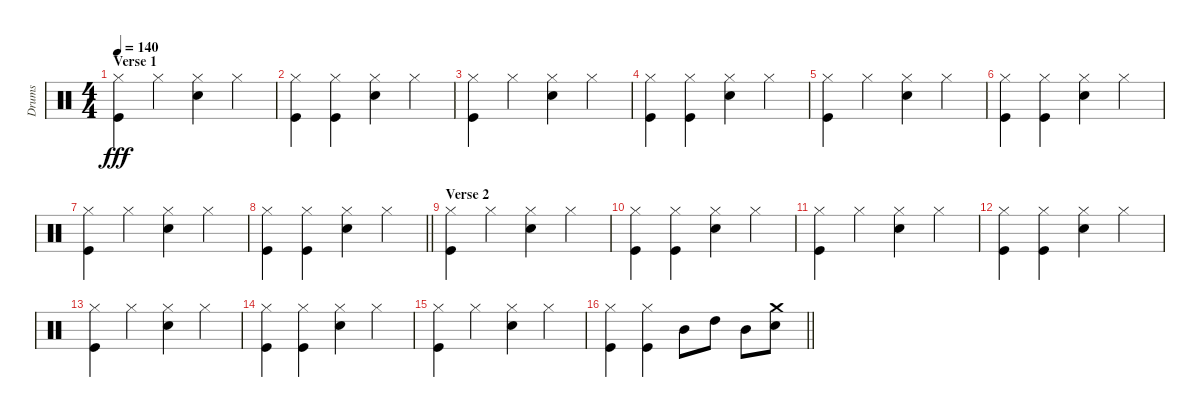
\track ("Drums" "Drums") {instrument percussion}
\staff {score}
\articulation defaults
\ts (4 4)
\section ("" "Verse 1")
\tempo 140
\clef neutral
\ks c
("Hi-Hat (closed)" "Kick (hit)").4{dy fff} "Hi-Hat (closed)".4 ("Hi-Hat (closed)" "Snare (hit) 2").4 "Hi-Hat (closed)".4 |
("Hi-Hat (closed)" "Kick (hit)").4 ("Hi-Hat (closed)" "Kick (hit)").4 ("Hi-Hat (closed)" "Snare (hit) 2").4 "Hi-Hat (closed)".4 |
("Hi-Hat (closed)" "Kick (hit)").4 "Hi-Hat (closed)".4 ("Hi-Hat (closed)" "Snare (hit) 2").4 "Hi-Hat (closed)".4 |
("Hi-Hat (closed)" "Kick (hit)").4 ("Hi-Hat (closed)" "Kick (hit)").4 ("Hi-Hat (closed)" "Snare (hit) 2").4 "Hi-Hat (closed)".4 |
("Hi-Hat (closed)" "Kick (hit)").4 "Hi-Hat (closed)".4 ("Hi-Hat (closed)" "Snare (hit) 2").4 "Hi-Hat (closed)".4 |
("Hi-Hat (closed)" "Kick (hit)").4 ("Hi-Hat (closed)" "Kick (hit)").4 ("Hi-Hat (closed)" "Snare (hit) 2").4 "Hi-Hat (closed)".4 |
("Hi-Hat (closed)" "Kick (hit)").4 "Hi-Hat (closed)".4 ("Hi-Hat (closed)" "Snare (hit) 2").4 "Hi-Hat (closed)".4 |
\barLineRight lightlight
("Hi-Hat (closed)" "Kick (hit)").4 ("Hi-Hat (closed)" "Kick (hit)").4 ("Hi-Hat (closed)" "Snare (hit) 2").4 "Hi-Hat (closed)".4 |
\section ("" "Verse 2")
("Hi-Hat (closed)" "Kick (hit)").4 "Hi-Hat (closed)".4 ("Hi-Hat (closed)" "Snare (hit) 2").4 "Hi-Hat (closed)".4 |
("Hi-Hat (closed)" "Kick (hit)").4 ("Hi-Hat (closed)" "Kick (hit)").4 ("Hi-Hat (closed)" "Snare (hit) 2").4 "Hi-Hat (closed)".4 |
("Hi-Hat (closed)" "Kick (hit)").4 "Hi-Hat (closed)".4 ("Hi-Hat (closed)" "Snare (hit) 2").4 "Hi-Hat (closed)".4 |
("Hi-Hat (closed)" "Kick (hit)").4 ("Hi-Hat (closed)" "Kick (hit)").4 ("Hi-Hat (closed)" "Snare (hit) 2").4 "Hi-Hat (closed)".4 |
("Hi-Hat (closed)" "Kick (hit)").4 "Hi-Hat (closed)".4 ("Hi-Hat (closed)" "Snare (hit) 2").4 "Hi-Hat (closed)".4 |
("Hi-Hat (closed)" "Kick (hit)").4 ("Hi-Hat (closed)" "Kick (hit)").4 ("Hi-Hat (closed)" "Snare (hit) 2").4 "Hi-Hat (closed)".4 |
("Hi-Hat (closed)" "Kick (hit)").4 "Hi-Hat (closed)".4 ("Hi-Hat (closed)" "Snare (hit) 2").4 "Hi-Hat (closed)".4 |
\barLineRight lightlight
("Hi-Hat (closed)" "Kick (hit)").4 ("Hi-Hat (closed)" "Kick (hit)").4 "Mid Tom (hit)".8 "High Tom (hit)".8 "Mid Tom (hit)".8 ("Crash medium (hit)" "Snare (hit) 2").8
